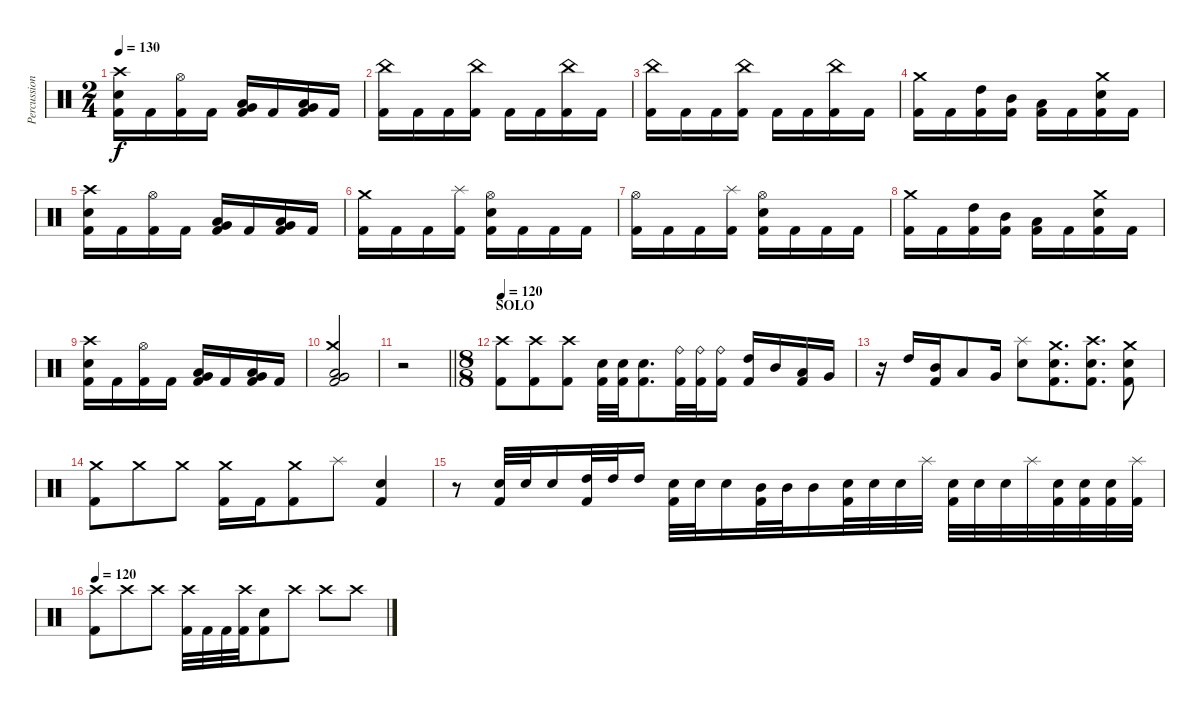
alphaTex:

\track ("Percussions" "Percussion") {instrument percussion}
\staff {score}
\articulation defaults
\ts (2 4)
\tempo 130
\clef neutral
\ks c
("Crash high (hit)" "Electric Snare (hit)" "Kick (hit) 2").16{dy f} "Kick (hit) 2".16 ("Hi-Hat (open)" "Kick (hit) 2").16 "Kick (hit) 2".16 ("Low Tom (hit)" "Very Low Tom (hit)" "Kick (hit) 2").16 "Kick (hit) 2".16 ("Low Tom (hit)" "Very Low Tom (hit)" "Kick (hit) 2").16 "Kick (hit) 2".16 |
("China (hit)" "Kick (hit) 2").16 "Kick (hit) 2".16 "Kick (hit) 2".16 ("China (hit)" "Kick (hit) 2").16 "Kick (hit) 2".16 "Kick (hit) 2".16 ("China (hit)" "Kick (hit) 2").16 "Kick (hit) 2".16 |
("China (hit)" "Kick (hit) 2").16 "Kick (hit) 2".16 "Kick (hit) 2".16 ("China (hit)" "Kick (hit) 2").16 "Kick (hit) 2".16 "Kick (hit) 2".16 ("China (hit)" "Kick (hit) 2").16 "Kick (hit) 2".16 |
("Crash medium (hit)" "Kick (hit) 2").16 "Kick (hit) 2".16 ("High Tom (hit)" "Kick (hit) 2").16 ("Mid Tom (hit)" "Kick (hit) 2").16 ("Low Tom (hit)" "Kick (hit) 2").16 "Kick (hit) 2".16 ("Crash medium (hit)" "Electric Snare (hit)" "Kick (hit) 2").16 "Kick (hit) 2".16 |
("Crash high (hit)" "Electric Snare (hit)" "Kick (hit) 2").16 "Kick (hit) 2".16 ("Hi-Hat (open)" "Kick (hit) 2").16 "Kick (hit) 2".16 ("Low Tom (hit)" "Very Low Tom (hit)" "Kick (hit) 2").16 "Kick (hit) 2".16 ("Low Tom (hit)" "Very Low Tom (hit)" "Kick (hit) 2").16 "Kick (hit) 2".16 |
("Crash medium (hit)" "Kick (hit) 2").16 "Kick (hit) 2".16 "Kick (hit) 2".16 ("Splash (hit)" "Kick (hit) 2").16 ("Hi-Hat (open)" "Electric Snare (hit)" "Kick (hit) 2").16 "Kick (hit) 2".16 "Kick (hit) 2".16 "Kick (hit) 2".16 |
("Hi-Hat (open)" "Kick (hit) 2").16 "Kick (hit) 2".16 "Kick (hit) 2".16 ("Splash (hit)" "Kick (hit) 2").16 ("Hi-Hat (open)" "Electric Snare (hit)" "Kick (hit) 2").16 "Kick (hit) 2".16 "Kick (hit) 2".16 "Kick (hit) 2".16 |
("Crash medium (hit)" "Kick (hit) 2").16 "Kick (hit) 2".16 ("High Tom (hit)" "Kick (hit) 2").16 ("Mid Tom (hit)" "Kick (hit) 2").16 ("Low Tom (hit)" "Kick (hit) 2").16 "Kick (hit) 2".16 ("Crash medium (hit)" "Electric Snare (hit)" "Kick (hit) 2").16 "Kick (hit) 2".16 |
("Crash high (hit)" "Electric Snare (hit)" "Kick (hit) 2").16 "Kick (hit) 2".16 ("Hi-Hat (open)" "Kick (hit) 2").16 "Kick (hit) 2".16 ("Low Tom (hit)" "Very Low Tom (hit)" "Kick (hit) 2").16 "Kick (hit) 2".16 ("Low Tom (hit)" "Very Low Tom (hit)" "Kick (hit) 2").16 "Kick (hit) 2".16 |
("Crash medium (hit)" "Very Low Tom (hit)" "Low Floor Tom (hit)" "Kick (hit) 2").2 |
\barLineRight lightlight
r.2 |
\ts (8 8)
\section ("" "SOLO")
\tempo 120
("Crash high (hit)" "Kick (hit) 2").8 ("Crash high (hit)" "Kick (hit) 2").8 ("Crash high (hit)" "Kick (hit) 2").8 ("Electric Snare (hit)" "Kick (hit) 2").32 ("Electric Snare (hit)" "Kick (hit) 2").32 ("Electric Snare (hit)" "Kick (hit) 2").8{d} ("Ride (bell)" "Kick (hit) 2").32 ("Ride (bell)" "Kick (hit) 2").32 ("Ride (bell)" "Kick (hit) 2").16 ("High Tom (hit)" "Kick (hit) 2").16 "Mid Tom (hit)".16 ("Low Tom (hit)" "Kick (hit) 2").16 "Very Low Tom (hit)".16 |
r.16 "High Tom (hit)".16 ("Mid Tom (hit)" "Kick (hit) 2").16 "Low Tom (hit)".8 "Very Low Tom (hit)".16 ("Splash (hit)" "Electric Snare (hit)").8 ("Crash medium (hit)" "Electric Snare (hit)" "Kick (hit) 2").8{d} ("Crash high (hit)" "Electric Snare (hit)" "Kick (hit) 2").8{d} ("Crash medium (hit)" "Electric Snare (hit)" "Kick (hit) 2").8 |
("Crash medium (hit)" "Kick (hit) 2").8 "Crash medium (hit)".8 "Crash medium (hit)".8 ("Crash medium (hit)" "Kick (hit) 2").16 "Kick (hit) 2".16 ("Crash medium (hit)" "Kick (hit) 2").8 "Splash (hit)".8 ("Electric Snare (hit)" "Kick (hit) 2").4 |
r.8 ("Electric Snare (hit)" "Kick (hit) 2").32 "Electric Snare (hit)".32 "Electric Snare (hit)".16 ("High Tom (hit)" "Kick (hit) 2").32 "High Tom (hit)".32 "High Tom (hit)".16 ("Electric Snare (hit)" "Kick (hit) 2").32 "Electric Snare (hit)".32 "Electric Snare (hit)".16 ("Mid Tom (hit)" "Kick (hit) 2").32 "Mid Tom (hit)".32 "Mid Tom (hit)".16 ("Electric Snare (hit)" "Kick (hit) 2").32 "Electric Snare (hit)".32 "Electric Snare (hit)".32 "Splash (hit)".32 ("Electric Snare (hit)" "Kick (hit) 2").32 "Electric Snare (hit)".32 "Electric Snare (hit)".32 "Splash (hit)".32 ("Electric Snare (hit)" "Kick (hit) 2").32 ("Electric Snare (hit)" "Kick (hit) 2").32 ("Electric Snare (hit)" "Kick (hit) 2").32 ("Splash (hit)" "Kick (hit) 2").32 |
\tempo 120
("Crash high (hit)" "Kick (hit) 2").8 "Crash high (hit)".8 "Crash high (hit)".8 ("Crash high (hit)" "Kick (hit) 2").32 "Kick (hit) 2".32 "Kick (hit) 2".32 ("Crash high (hit)" "Kick (hit) 2").32 ("Electric Snare (hit)" "Kick (hit) 2").8 "Crash high (hit)".8 "Crash high (hit)".8 "Crash high (hit)".8
